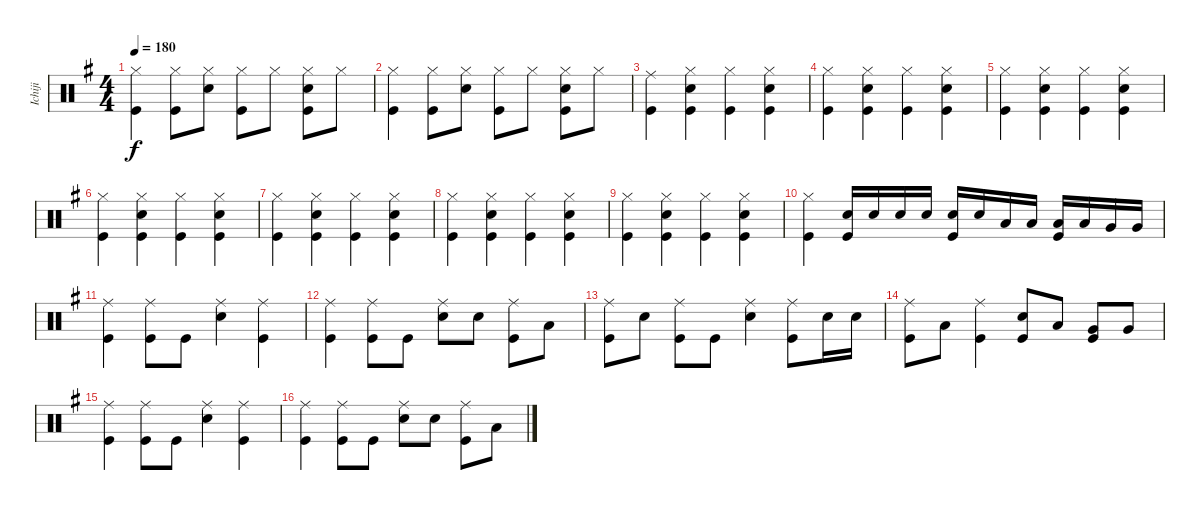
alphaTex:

\track ("Ichiji" "Ichiji") {instrument percussion}
\staff {score}
\articulation defaults
\ts (4 4)
\tempo 180
\clef neutral
\ks g
("Hi-Hat (closed)" "Kick (hit)").4{dy f} ("Hi-Hat (closed)" "Kick (hit)").8 ("Hi-Hat (closed)" "Snare (hit) 2").8 ("Hi-Hat (closed)" "Kick (hit)").8 "Hi-Hat (closed)".8 ("Hi-Hat (closed)" "Snare (hit) 2" "Kick (hit)").8 "Hi-Hat (closed)".8 |
("Hi-Hat (closed)" "Kick (hit)").4 ("Hi-Hat (closed)" "Kick (hit)").8 ("Hi-Hat (closed)" "Snare (hit) 2").8 ("Hi-Hat (closed)" "Kick (hit)").8 "Hi-Hat (closed)".8 ("Hi-Hat (closed)" "Snare (hit) 2" "Kick (hit)").8 "Hi-Hat (closed)".8 |
("Ride (middle)" "Kick (hit)").4 ("Hi-Hat (closed)" "Snare (hit) 2" "Kick (hit)").4 ("Hi-Hat (closed)" "Kick (hit)").4 ("Hi-Hat (closed)" "Snare (hit) 2" "Kick (hit)").4 |
("Hi-Hat (closed)" "Kick (hit)").4 ("Hi-Hat (closed)" "Snare (hit) 2" "Kick (hit)").4 ("Hi-Hat (closed)" "Kick (hit)").4 ("Hi-Hat (closed)" "Snare (hit) 2" "Kick (hit)").4 |
("Hi-Hat (closed)" "Kick (hit)").4 ("Hi-Hat (closed)" "Snare (hit) 2" "Kick (hit)").4 ("Hi-Hat (closed)" "Kick (hit)").4 ("Hi-Hat (closed)" "Snare (hit) 2" "Kick (hit)").4 |
("Hi-Hat (closed)" "Kick (hit)").4 ("Hi-Hat (closed)" "Snare (hit) 2" "Kick (hit)").4 ("Hi-Hat (closed)" "Kick (hit)").4 ("Hi-Hat (closed)" "Snare (hit) 2" "Kick (hit)").4 |
("Hi-Hat (closed)" "Kick (hit)").4 ("Hi-Hat (closed)" "Snare (hit) 2" "Kick (hit)").4 ("Hi-Hat (closed)" "Kick (hit)").4 ("Hi-Hat (closed)" "Snare (hit) 2" "Kick (hit)").4 |
("Hi-Hat (closed)" "Kick (hit)").4 ("Hi-Hat (closed)" "Snare (hit) 2" "Kick (hit)").4 ("Hi-Hat (closed)" "Kick (hit)").4 ("Hi-Hat (closed)" "Snare (hit) 2" "Kick (hit)").4 |
("Hi-Hat (closed)" "Kick (hit)").4 ("Hi-Hat (closed)" "Snare (hit) 2" "Kick (hit)").4 ("Hi-Hat (closed)" "Kick (hit)").4 ("Hi-Hat (closed)" "Snare (hit) 2" "Kick (hit)").4 |
("Hi-Hat (closed)" "Kick (hit)").4 ("Snare (hit) 2" "Kick (hit)").16 "Snare (hit) 2".16 "Snare (hit) 2".16 "Snare (hit) 2".16 ("Snare (hit) 2" "Kick (hit)").16 "Snare (hit) 2".16 "Low Tom (hit)".16 "Low Tom (hit)".16 ("Low Tom (hit)" "Kick (hit)").16 "Low Tom (hit)".16 "Very Low Tom (hit)".16 "Very Low Tom (hit)".16 |
("Ride (middle)" "Kick (hit)").4 ("Ride (middle)" "Kick (hit)").8 "Kick (hit)".8 ("Ride (middle)" "Snare (hit) 2").4 ("Ride (middle)" "Kick (hit)").4 |
("Ride (middle)" "Kick (hit)").4 ("Ride (middle)" "Kick (hit)").8 "Kick (hit)".8 ("Ride (middle)" "Snare (hit) 2").8 "Snare (hit) 2".8 ("Ride (middle)" "Kick (hit)").8 "Low Tom (hit)".8 |
("Ride (middle)" "Kick (hit)").8 "Snare (hit) 2".8 ("Ride (middle)" "Kick (hit)").8 "Kick (hit)".8 ("Ride (middle)" "Snare (hit) 2").4 ("Ride (middle)" "Kick (hit)").8 "Snare (hit) 2".16 "Snare (hit) 2".16 |
("Ride (middle)" "Kick (hit)").8 "Low Tom (hit)".8 ("Ride (middle)" "Kick (hit)").4 ("Kick (hit)" "Snare (hit) 2").8 "Low Tom (hit)".8 ("Kick (hit)" "Very Low Tom (hit)").8 "Very Low Tom (hit)".8 |
("Ride (middle)" "Kick (hit)").4 ("Ride (middle)" "Kick (hit)").8 "Kick (hit)".8 ("Ride (middle)" "Snare (hit) 2").4 ("Ride (middle)" "Kick (hit)").4 |
("Ride (middle)" "Kick (hit)").4 ("Ride (middle)" "Kick (hit)").8 "Kick (hit)".8 ("Ride (middle)" "Snare (hit) 2").8 "Snare (hit) 2".8 ("Ride (middle)" "Kick (hit)").8 "Low Tom (hit)".8
